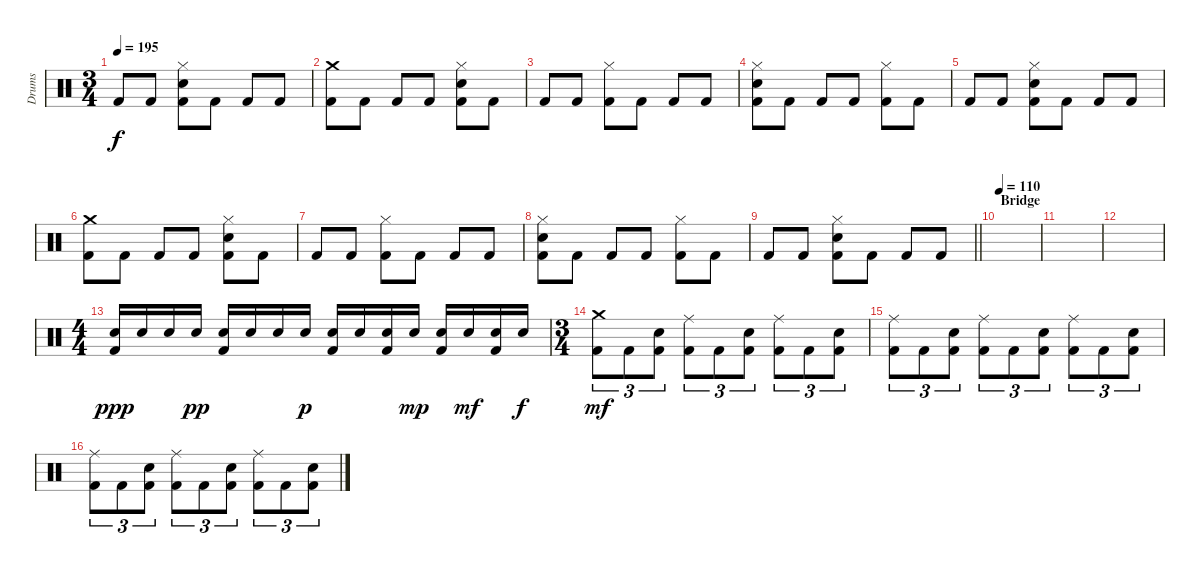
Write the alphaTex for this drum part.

\track ("Drums" "Drums") {instrument percussion}
\staff {score}
\articulation defaults
\ts (3 4)
\tempo 195
\clef neutral
\ks c "Kick (hit) 2".8{dy f} "Kick (hit) 2".8
("Kick (hit) 2" "Snare (hit) 2" "Hi-Hat (closed)").8 "Kick (hit) 2".8 "Kick (hit) 2".8 "Kick (hit) 2".8 |
("Kick (hit) 2" "Crash medium (hit)").8 "Kick (hit) 2".8 "Kick (hit) 2".8 "Kick (hit) 2".8 ("Kick (hit) 2" "Snare (hit) 2" "Hi-Hat (closed)").8 "Kick (hit) 2".8 |
"Kick (hit) 2".8 "Kick (hit) 2".8 ("Kick (hit) 2" "Hi-Hat (closed)").8 "Kick (hit) 2".8 "Kick (hit) 2".8 "Kick (hit) 2".8 |
("Kick (hit) 2" "Snare (hit) 2" "Hi-Hat (closed)").8 "Kick (hit) 2".8 "Kick (hit) 2".8 "Kick (hit) 2".8 ("Kick (hit) 2" "Hi-Hat (closed)").8 "Kick (hit) 2".8 |
"Kick (hit) 2".8 "Kick (hit) 2".8 ("Kick (hit) 2" "Snare (hit) 2" "Hi-Hat (closed)").8 "Kick (hit) 2".8 "Kick (hit) 2".8 "Kick (hit) 2".8 |
("Kick (hit) 2" "Crash medium (hit)").8 "Kick (hit) 2".8 "Kick (hit) 2".8 "Kick (hit) 2".8 ("Kick (hit) 2" "Snare (hit) 2" "Hi-Hat (closed)").8 "Kick (hit) 2".8 |
"Kick (hit) 2".8 "Kick (hit) 2".8 ("Kick (hit) 2" "Hi-Hat (closed)").8 "Kick (hit) 2".8 "Kick (hit) 2".8 "Kick (hit) 2".8 |
("Kick (hit) 2" "Snare (hit) 2" "Hi-Hat (closed)").8 "Kick (hit) 2".8 "Kick (hit) 2".8 "Kick (hit) 2".8 ("Kick (hit) 2" "Hi-Hat (closed)").8 "Kick (hit) 2".8 |
\barLineRight lightlight "Kick (hit) 2".8 "Kick (hit) 2".8
("Kick (hit) 2" "Snare (hit) 2" "Hi-Hat (closed)").8 "Kick (hit) 2".8 "Kick (hit) 2".8 "Kick (hit) 2".8 |
\section ("" "Bridge")
\tempo 110
|
|
|
\ts (4 4)
("Kick (hit) 2" "Snare (hit) 2").16{dy ppp} "Snare (hit) 2".16 "Snare (hit) 2".16 "Snare (hit) 2".16{dy pp} ("Kick (hit) 2" "Snare (hit) 2").16 "Snare (hit) 2".16 "Snare (hit) 2".16 "Snare (hit) 2".16{dy p} ("Kick (hit) 2" "Snare (hit) 2").16 "Snare (hit) 2".16 ("Kick (hit) 2" "Snare (hit) 2").16 "Snare (hit) 2".16{dy mp} ("Kick (hit) 2" "Snare (hit) 2").16 "Snare (hit) 2".16{dy mf} ("Kick (hit) 2" "Snare (hit) 2").16 "Snare (hit) 2".16{dy f} |
\ts (3 4)
("Kick (hit) 2" "Crash medium (hit)").8{tu (3 2) dy mf} "Kick (hit) 2".8{tu (3 2)} ("Kick (hit) 2" "Snare (hit) 2").8{tu (3 2)} ("Kick (hit) 2" "Ride (middle)").8{tu (3 2)} "Kick (hit) 2".8{tu (3 2)} ("Kick (hit) 2" "Snare (hit) 2").8{tu (3 2)} ("Kick (hit) 2" "Ride (middle)").8{tu (3 2)} "Kick (hit) 2".8{tu (3 2)} ("Kick (hit) 2" "Snare (hit) 2").8{tu (3 2)} |
("Kick (hit) 2" "Ride (middle)").8{tu (3 2)} "Kick (hit) 2".8{tu (3 2)} ("Kick (hit) 2" "Snare (hit) 2").8{tu (3 2)} ("Kick (hit) 2" "Ride (middle)").8{tu (3 2)} "Kick (hit) 2".8{tu (3 2)} ("Kick (hit) 2" "Snare (hit) 2").8{tu (3 2)} ("Kick (hit) 2" "Ride (middle)").8{tu (3 2)} "Kick (hit) 2".8{tu (3 2)} ("Kick (hit) 2" "Snare (hit) 2").8{tu (3 2)} |
("Kick (hit) 2" "Ride (middle)").8{tu (3 2)} "Kick (hit) 2".8{tu (3 2)} ("Kick (hit) 2" "Snare (hit) 2").8{tu (3 2)} ("Kick (hit) 2" "Ride (middle)").8{tu (3 2)} "Kick (hit) 2".8{tu (3 2)} ("Kick (hit) 2" "Snare (hit) 2").8{tu (3 2)} ("Kick (hit) 2" "Ride (middle)").8{tu (3 2)} "Kick (hit) 2".8{tu (3 2)} ("Kick (hit) 2" "Snare (hit) 2").8{tu (3 2)}
